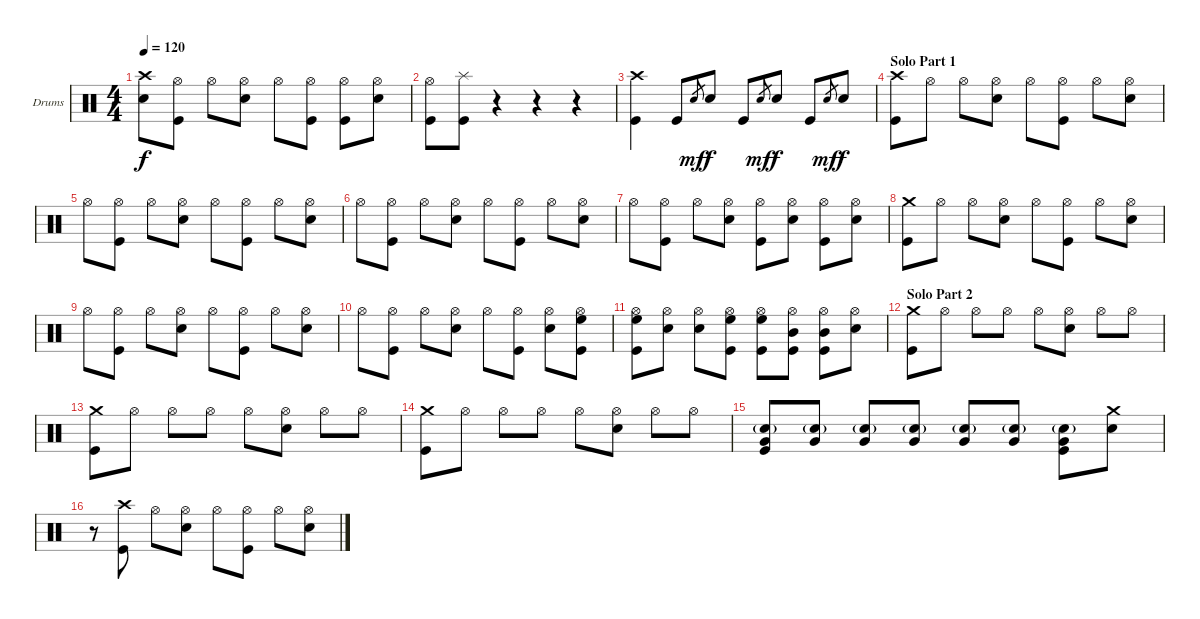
\bracketExtendMode groupsimilarinstruments
\firstSystemTrackNameOrientation horizontal
\otherSystemsTrackNameOrientation horizontal
\track ("Drumkit" "Drums") {instrument percussion}
\staff {score}
\articulation defaults
\ts (4 4)
\tempo 120
\clef neutral
\ks c
("Crash high (hit)" "Snare (hit) 2").8{dy f} ("Hi-Hat (open)" "Kick (hit)").8 "Hi-Hat (open)".8 ("Hi-Hat (open)" "Snare (hit) 2").8 "Hi-Hat (open)".8 ("Hi-Hat (open)" "Kick (hit)").8 ("Hi-Hat (open)" "Kick (hit)").8 ("Hi-Hat (open)" "Snare (hit) 2").8 |
("Hi-Hat (open)" "Kick (hit)").8 ("Splash (hit)" "Kick (hit)").8 r.4 r.4 r.4 |
("Crash high (hit)" "Kick (hit)").4 "Kick (hit)".8 "Snare (hit) 2".8{gr dy mf} "Snare (hit) 2".8{dy f} "Kick (hit)".8 "Snare (hit) 2".8{gr dy mf} "Snare (hit) 2".8{dy f} "Kick (hit)".8 "Snare (hit) 2".8{gr dy mf} "Snare (hit) 2".8{dy f} |
\section ("" "Solo Part 1")
("Crash high (hit)" "Kick (hit)").8 "Hi-Hat (open)".8 "Hi-Hat (open)".8 ("Hi-Hat (open)" "Snare (hit) 2").8 "Hi-Hat (open)".8 ("Hi-Hat (open)" "Kick (hit)").8 "Hi-Hat (open)".8 ("Hi-Hat (open)" "Snare (hit) 2").8 |
"Hi-Hat (open)".8 ("Hi-Hat (open)" "Kick (hit)").8 "Hi-Hat (open)".8 ("Hi-Hat (open)" "Snare (hit) 2").8 "Hi-Hat (open)".8 ("Hi-Hat (open)" "Kick (hit)").8 "Hi-Hat (open)".8 ("Hi-Hat (open)" "Snare (hit) 2").8 |
"Hi-Hat (open)".8 ("Hi-Hat (open)" "Kick (hit)").8 "Hi-Hat (open)".8 ("Hi-Hat (open)" "Snare (hit) 2").8 "Hi-Hat (open)".8 ("Hi-Hat (open)" "Kick (hit)").8 "Hi-Hat (open)".8 ("Hi-Hat (open)" "Snare (hit) 2").8 |
"Hi-Hat (open)".8 ("Hi-Hat (open)" "Kick (hit)").8 "Hi-Hat (open)".8 ("Hi-Hat (open)" "Snare (hit) 2").8 ("Hi-Hat (open)" "Kick (hit)").8 ("Hi-Hat (open)" "Snare (hit) 2").8 ("Hi-Hat (open)" "Kick (hit)").8 ("Hi-Hat (open)" "Snare (hit) 2").8 |
("Crash medium (hit)" "Kick (hit)").8 "Hi-Hat (open)".8 "Hi-Hat (open)".8 ("Hi-Hat (open)" "Snare (hit) 2").8 "Hi-Hat (open)".8 ("Hi-Hat (open)" "Kick (hit)").8 "Hi-Hat (open)".8 ("Hi-Hat (open)" "Snare (hit) 2").8 |
"Hi-Hat (open)".8 ("Hi-Hat (open)" "Kick (hit)").8 "Hi-Hat (open)".8 ("Hi-Hat (open)" "Snare (hit) 2").8 "Hi-Hat (open)".8 ("Hi-Hat (open)" "Kick (hit)").8 "Hi-Hat (open)".8 ("Hi-Hat (open)" "Snare (hit) 2").8 |
"Hi-Hat (open)".8 ("Hi-Hat (open)" "Kick (hit)").8 "Hi-Hat (open)".8 ("Hi-Hat (open)" "Snare (hit) 2").8 "Hi-Hat (open)".8 ("Hi-Hat (open)" "Kick (hit)").8 ("Hi-Hat (open)" "Snare (hit) 2").8 ("Hi-Hat (open)" "High Floor Tom (hit)" "Kick (hit)").8 |
("Hi-Hat (open)" "High Floor Tom (hit)" "Kick (hit)").8 ("Hi-Hat (open)" "Snare (hit) 2").8 ("Hi-Hat (open)" "Snare (hit) 2").8 ("Hi-Hat (open)" "High Floor Tom (hit)" "Kick (hit)").8 ("Hi-Hat (open)" "High Floor Tom (hit)" "Kick (hit)").8 ("Hi-Hat (open)" "Mid Tom (hit)" "Kick (hit)").8 ("Hi-Hat (open)" "Mid Tom (hit)" "Kick (hit)").8 ("Hi-Hat (open)" "Snare (hit) 2").8 |
\section ("" "Solo Part 2")
("Crash medium (hit)" "Kick (hit)").8 "Hi-Hat (open)".8 "Hi-Hat (open)".8 "Hi-Hat (open)".8 "Hi-Hat (open)".8 ("Hi-Hat (open)" "Snare (hit) 2").8 "Hi-Hat (open)".8 "Hi-Hat (open)".8 |
("Crash medium (hit)" "Kick (hit)").8 "Hi-Hat (open)".8 "Hi-Hat (open)".8 "Hi-Hat (open)".8 "Hi-Hat (open)".8 ("Hi-Hat (open)" "Snare (hit) 2").8 "Hi-Hat (open)".8 "Hi-Hat (open)".8 |
("Crash medium (hit)" "Kick (hit)").8 "Hi-Hat (open)".8 "Hi-Hat (open)".8 "Hi-Hat (open)".8 "Hi-Hat (open)".8 ("Hi-Hat (open)" "Snare (hit) 2").8 "Hi-Hat (open)".8 "Hi-Hat (open)".8 |
("Snare (hit) 2"{g} "Very Low Tom (hit)" "Kick (hit)").8 ("Snare (hit) 2"{g} "Very Low Tom (hit)").8 ("Snare (hit) 2"{g} "Very Low Tom (hit)").8 ("Snare (hit) 2"{g} "Very Low Tom (hit)").8 ("Snare (hit) 2"{g} "Very Low Tom (hit)").8 ("Snare (hit) 2"{g} "Very Low Tom (hit)").8 ("Snare (hit) 2"{g} "Very Low Tom (hit)" "Kick (hit)").8 ("Crash medium (hit)" "Snare (hit) 2").8 |
r.8 ("Crash high (hit)" "Kick (hit)").8 "Hi-Hat (open)".8 ("Hi-Hat (open)" "Snare (hit) 2").8 "Hi-Hat (open)".8 ("Hi-Hat (open)" "Kick (hit)").8 "Hi-Hat (open)".8 ("Hi-Hat (open)" "Snare (hit) 2").8
